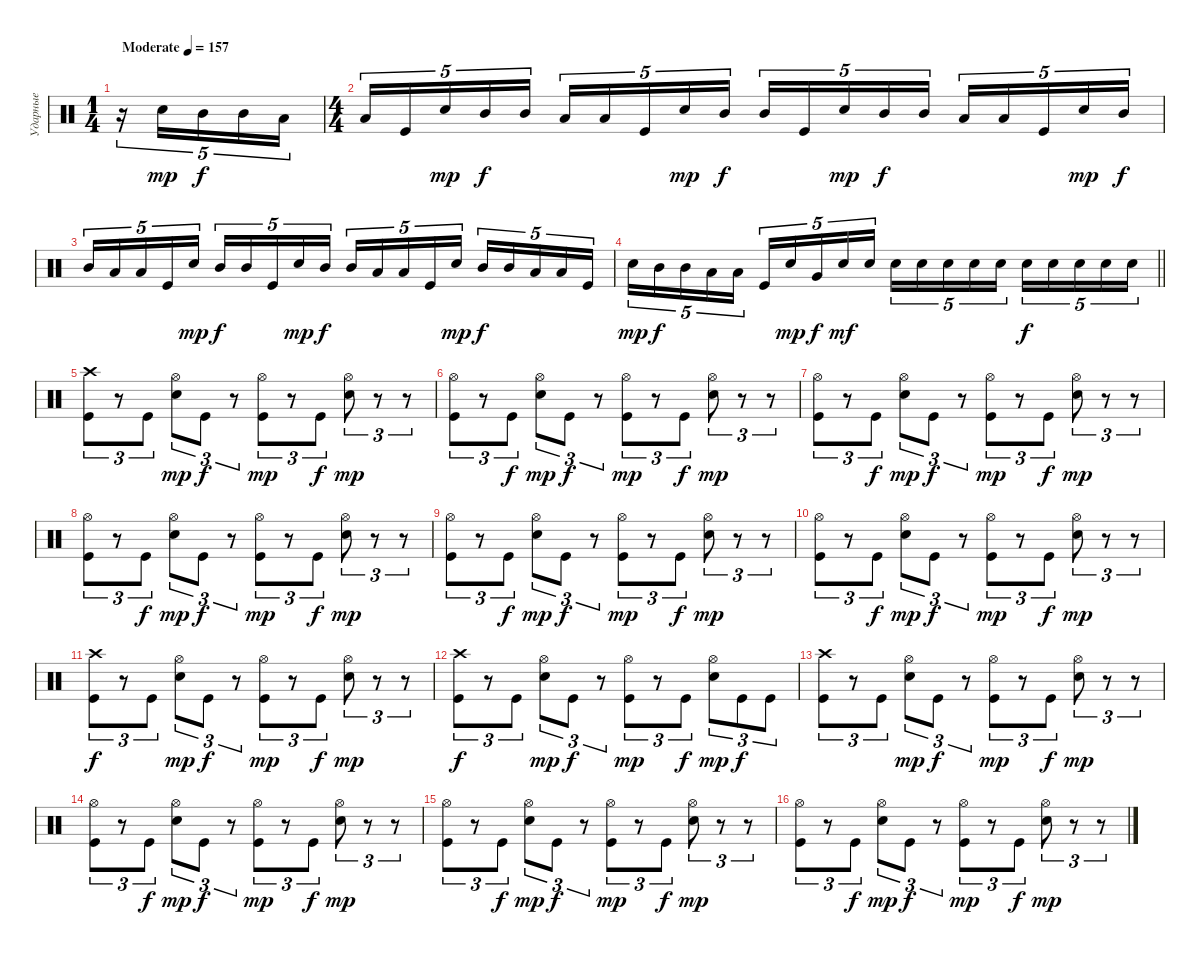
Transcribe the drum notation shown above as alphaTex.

\track ("Ударные" "Ударные") {instrument percussion}
\staff {score}
\articulation defaults
\ts (1 4)
\section ("" "")
\tempo (157 "Moderate")
\clef neutral
\ks c
r.16{tu (5 4) dy mp} "Snare (hit) 2".16{tu (5 4)} "Mid Tom (hit)".16{tu (5 4) dy f} "Mid Tom (hit)".16{tu (5 4)} "Low Tom (hit)".16{tu (5 4)} |
\ts (4 4)
"Low Tom (hit)".16{tu (5 4)} "Kick (hit)".16{tu (5 4)} "Snare (hit) 2".16{tu (5 4) dy mp} "Mid Tom (hit)".16{tu (5 4) dy f} "Mid Tom (hit)".16{tu (5 4)} "Low Tom (hit)".16{tu (5 4)} "Low Tom (hit)".16{tu (5 4)} "Kick (hit)".16{tu (5 4)} "Snare (hit) 2".16{tu (5 4) dy mp} "Mid Tom (hit)".16{tu (5 4) dy f} "Mid Tom (hit)".16{tu (5 4)} "Kick (hit)".16{tu (5 4)} "Snare (hit) 2".16{tu (5 4) dy mp} "Mid Tom (hit)".16{tu (5 4) dy f} "Mid Tom (hit)".16{tu (5 4)} "Low Tom (hit)".16{tu (5 4)} "Low Tom (hit)".16{tu (5 4)} "Kick (hit)".16{tu (5 4)} "Snare (hit) 2".16{tu (5 4) dy mp} "Mid Tom (hit)".16{tu (5 4) dy f} |
"Mid Tom (hit)".16{tu (5 4)} "Low Tom (hit)".16{tu (5 4)} "Low Tom (hit)".16{tu (5 4)} "Kick (hit)".16{tu (5 4)} "Snare (hit) 2".16{tu (5 4) dy mp} "Mid Tom (hit)".16{tu (5 4) dy f} "Mid Tom (hit)".16{tu (5 4)} "Kick (hit)".16{tu (5 4)} "Snare (hit) 2".16{tu (5 4) dy mp} "Mid Tom (hit)".16{tu (5 4) dy f} "Mid Tom (hit)".16{tu (5 4)} "Low Tom (hit)".16{tu (5 4)} "Low Tom (hit)".16{tu (5 4)} "Kick (hit)".16{tu (5 4)} "Snare (hit) 2".16{tu (5 4) dy mp} "Mid Tom (hit)".16{tu (5 4) dy f} "Mid Tom (hit)".16{tu (5 4)} "Low Tom (hit)".16{tu (5 4)} "Low Tom (hit)".16{tu (5 4)} "Kick (hit)".16{tu (5 4)} |
\barLineRight lightlight "Snare (hit) 2".16{tu (5 4) dy mp} "Mid Tom (hit)".16{tu (5 4) dy f} "Mid Tom (hit)".16{tu (5 4)} "Low Tom (hit)".16{tu (5 4)} "Low Tom (hit)".16{tu (5 4)} "Kick (hit)".16{tu (5 4)} "Snare (hit) 2".16{tu (5 4) dy mp} "Very Low Tom (hit)".16{tu (5 4) dy f} "Snare (hit) 2".16{tu (5 4) dy mf} "Snare (hit) 2".16{tu (5 4)} "Snare (hit) 2".16{tu (5 4)} "Snare (hit) 2".16{tu (5 4)} "Snare (hit) 2".16{tu (5 4)} "Snare (hit) 2".16{tu (5 4)} "Snare (hit) 2".16{tu (5 4)} "Snare (hit) 2".16{tu (5 4) dy f} "Snare (hit) 2".16{tu (5 4)} "Snare (hit) 2".16{tu (5 4)} "Snare (hit) 2".16{tu (5 4)} "Snare (hit) 2".16{tu (5 4)}
|
("Crash high (hit)" "Kick (hit)").8{tu (3 2)} r.8{tu (3 2)} "Kick (hit)".8{tu (3 2)} ("Hi-Hat (open)" "Snare (hit) 2").8{tu (3 2) dy mp} "Kick (hit)".8{tu (3 2) dy f} r.8{tu (3 2)} ("Hi-Hat (open)" "Kick (hit)").8{tu (3 2) dy mp} r.8{tu (3 2)} "Kick (hit)".8{tu (3 2) dy f} ("Hi-Hat (open)" "Snare (hit) 2").8{tu (3 2) dy mp} r.8{tu (3 2)} r.8{tu (3 2)} |
("Hi-Hat (open)" "Kick (hit)").8{tu (3 2)} r.8{tu (3 2)} "Kick (hit)".8{tu (3 2) dy f} ("Hi-Hat (open)" "Snare (hit) 2").8{tu (3 2) dy mp} "Kick (hit)".8{tu (3 2) dy f} r.8{tu (3 2)} ("Hi-Hat (open)" "Kick (hit)").8{tu (3 2) dy mp} r.8{tu (3 2)} "Kick (hit)".8{tu (3 2) dy f} ("Hi-Hat (open)" "Snare (hit) 2").8{tu (3 2) dy mp} r.8{tu (3 2)} r.8{tu (3 2)} |
("Hi-Hat (open)" "Kick (hit)").8{tu (3 2)} r.8{tu (3 2)} "Kick (hit)".8{tu (3 2) dy f} ("Hi-Hat (open)" "Snare (hit) 2").8{tu (3 2) dy mp} "Kick (hit)".8{tu (3 2) dy f} r.8{tu (3 2)} ("Hi-Hat (open)" "Kick (hit)").8{tu (3 2) dy mp} r.8{tu (3 2)} "Kick (hit)".8{tu (3 2) dy f} ("Hi-Hat (open)" "Snare (hit) 2").8{tu (3 2) dy mp} r.8{tu (3 2)} r.8{tu (3 2)} |
("Hi-Hat (open)" "Kick (hit)").8{tu (3 2)} r.8{tu (3 2)} "Kick (hit)".8{tu (3 2) dy f} ("Hi-Hat (open)" "Snare (hit) 2").8{tu (3 2) dy mp} "Kick (hit)".8{tu (3 2) dy f} r.8{tu (3 2)} ("Hi-Hat (open)" "Kick (hit)").8{tu (3 2) dy mp} r.8{tu (3 2)} "Kick (hit)".8{tu (3 2) dy f} ("Hi-Hat (open)" "Snare (hit) 2").8{tu (3 2) dy mp} r.8{tu (3 2)} r.8{tu (3 2)} |
("Hi-Hat (open)" "Kick (hit)").8{tu (3 2)} r.8{tu (3 2)} "Kick (hit)".8{tu (3 2) dy f} ("Hi-Hat (open)" "Snare (hit) 2").8{tu (3 2) dy mp} "Kick (hit)".8{tu (3 2) dy f} r.8{tu (3 2)} ("Hi-Hat (open)" "Kick (hit)").8{tu (3 2) dy mp} r.8{tu (3 2)} "Kick (hit)".8{tu (3 2) dy f} ("Hi-Hat (open)" "Snare (hit) 2").8{tu (3 2) dy mp} r.8{tu (3 2)} r.8{tu (3 2)} |
("Hi-Hat (open)" "Kick (hit)").8{tu (3 2)} r.8{tu (3 2)} "Kick (hit)".8{tu (3 2) dy f} ("Hi-Hat (open)" "Snare (hit) 2").8{tu (3 2) dy mp} "Kick (hit)".8{tu (3 2) dy f} r.8{tu (3 2)} ("Hi-Hat (open)" "Kick (hit)").8{tu (3 2) dy mp} r.8{tu (3 2)} "Kick (hit)".8{tu (3 2) dy f} ("Hi-Hat (open)" "Snare (hit) 2").8{tu (3 2) dy mp} r.8{tu (3 2)} r.8{tu (3 2)} |
("Crash high (hit)" "Kick (hit)").8{tu (3 2) dy f} r.8{tu (3 2)} "Kick (hit)".8{tu (3 2)} ("Hi-Hat (open)" "Snare (hit) 2").8{tu (3 2) dy mp} "Kick (hit)".8{tu (3 2) dy f} r.8{tu (3 2)} ("Hi-Hat (open)" "Kick (hit)").8{tu (3 2) dy mp} r.8{tu (3 2)} "Kick (hit)".8{tu (3 2) dy f} ("Hi-Hat (open)" "Snare (hit) 2").8{tu (3 2) dy mp} r.8{tu (3 2)} r.8{tu (3 2)} |
("Crash high (hit)" "Kick (hit)").8{tu (3 2) dy f} r.8{tu (3 2)} "Kick (hit)".8{tu (3 2)} ("Hi-Hat (open)" "Snare (hit) 2").8{tu (3 2) dy mp} "Kick (hit)".8{tu (3 2) dy f} r.8{tu (3 2)} ("Hi-Hat (open)" "Kick (hit)").8{tu (3 2) dy mp} r.8{tu (3 2)} "Kick (hit)".8{tu (3 2) dy f} ("Hi-Hat (open)" "Snare (hit) 2").8{tu (3 2) dy mp} "Kick (hit)".8{tu (3 2) dy f} "Kick (hit)".8{tu (3 2)} |
("Crash high (hit)" "Kick (hit)").8{tu (3 2)} r.8{tu (3 2)} "Kick (hit)".8{tu (3 2)} ("Hi-Hat (open)" "Snare (hit) 2").8{tu (3 2) dy mp} "Kick (hit)".8{tu (3 2) dy f} r.8{tu (3 2)} ("Hi-Hat (open)" "Kick (hit)").8{tu (3 2) dy mp} r.8{tu (3 2)} "Kick (hit)".8{tu (3 2) dy f} ("Hi-Hat (open)" "Snare (hit) 2").8{tu (3 2) dy mp} r.8{tu (3 2)} r.8{tu (3 2)} |
("Hi-Hat (open)" "Kick (hit)").8{tu (3 2)} r.8{tu (3 2)} "Kick (hit)".8{tu (3 2) dy f} ("Hi-Hat (open)" "Snare (hit) 2").8{tu (3 2) dy mp} "Kick (hit)".8{tu (3 2) dy f} r.8{tu (3 2)} ("Hi-Hat (open)" "Kick (hit)").8{tu (3 2) dy mp} r.8{tu (3 2)} "Kick (hit)".8{tu (3 2) dy f} ("Hi-Hat (open)" "Snare (hit) 2").8{tu (3 2) dy mp} r.8{tu (3 2)} r.8{tu (3 2)} |
("Hi-Hat (open)" "Kick (hit)").8{tu (3 2)} r.8{tu (3 2)} "Kick (hit)".8{tu (3 2) dy f} ("Hi-Hat (open)" "Snare (hit) 2").8{tu (3 2) dy mp} "Kick (hit)".8{tu (3 2) dy f} r.8{tu (3 2)} ("Hi-Hat (open)" "Kick (hit)").8{tu (3 2) dy mp} r.8{tu (3 2)} "Kick (hit)".8{tu (3 2) dy f} ("Hi-Hat (open)" "Snare (hit) 2").8{tu (3 2) dy mp} r.8{tu (3 2)} r.8{tu (3 2)} |
("Hi-Hat (open)" "Kick (hit)").8{tu (3 2)} r.8{tu (3 2)} "Kick (hit)".8{tu (3 2) dy f} ("Hi-Hat (open)" "Snare (hit) 2").8{tu (3 2) dy mp} "Kick (hit)".8{tu (3 2) dy f} r.8{tu (3 2)} ("Hi-Hat (open)" "Kick (hit)").8{tu (3 2) dy mp} r.8{tu (3 2)} "Kick (hit)".8{tu (3 2) dy f} ("Hi-Hat (open)" "Snare (hit) 2").8{tu (3 2) dy mp} r.8{tu (3 2)} r.8{tu (3 2)}
